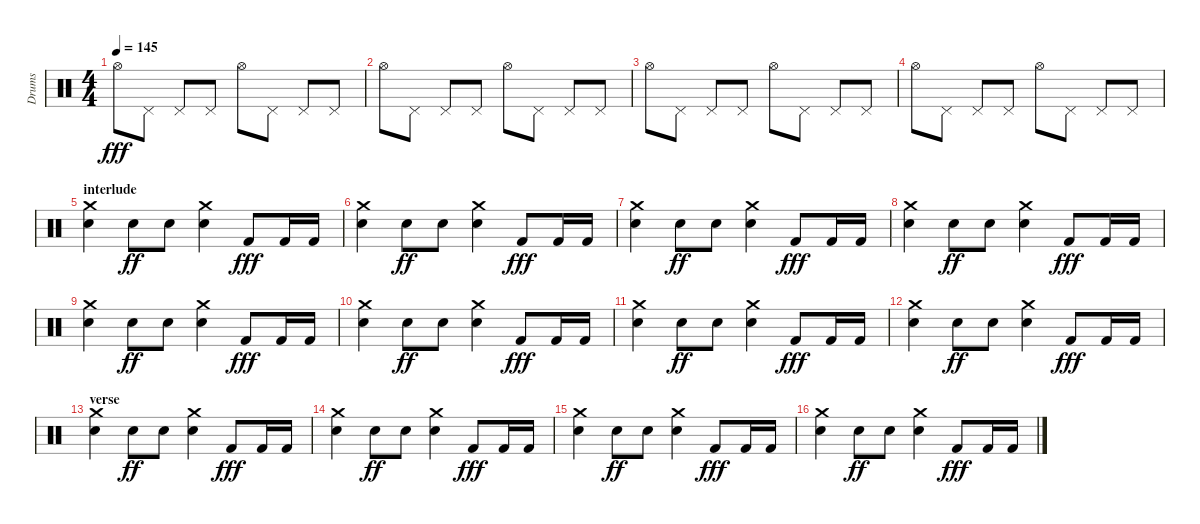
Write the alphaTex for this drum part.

\track ("Drums" "Drums") {instrument percussion}
\staff {score}
\articulation defaults
\ts (4 4)
\tempo 145
\clef neutral
\ks c "Hi-Hat (open)".8{dy fff} "Pedal Hi-Hat (hit)".8 "Pedal Hi-Hat (hit)".8 "Pedal Hi-Hat (hit)".8 "Hi-Hat (open)".8 "Pedal Hi-Hat (hit)".8 "Pedal Hi-Hat (hit)".8 "Pedal Hi-Hat (hit)".8
|
"Hi-Hat (open)".8 "Pedal Hi-Hat (hit)".8 "Pedal Hi-Hat (hit)".8 "Pedal Hi-Hat (hit)".8 "Hi-Hat (open)".8 "Pedal Hi-Hat (hit)".8 "Pedal Hi-Hat (hit)".8 "Pedal Hi-Hat (hit)".8 |
"Hi-Hat (open)".8 "Pedal Hi-Hat (hit)".8 "Pedal Hi-Hat (hit)".8 "Pedal Hi-Hat (hit)".8 "Hi-Hat (open)".8 "Pedal Hi-Hat (hit)".8 "Pedal Hi-Hat (hit)".8 "Pedal Hi-Hat (hit)".8 |
"Hi-Hat (open)".8 "Pedal Hi-Hat (hit)".8 "Pedal Hi-Hat (hit)".8 "Pedal Hi-Hat (hit)".8 "Hi-Hat (open)".8 "Pedal Hi-Hat (hit)".8 "Pedal Hi-Hat (hit)".8 "Pedal Hi-Hat (hit)".8 |
\section ("" "interlude")
("Snare (hit) 2" "Crash medium (hit)").4 "Snare (hit) 2".8{dy ff} "Snare (hit) 2".8 ("Crash medium (hit)" "Snare (hit) 2").4 "Kick (hit) 2".8{dy fff} "Kick (hit) 2".16 "Kick (hit) 2".16 |
("Snare (hit) 2" "Crash medium (hit)").4 "Snare (hit) 2".8{dy ff} "Snare (hit) 2".8 ("Crash medium (hit)" "Snare (hit) 2").4 "Kick (hit) 2".8{dy fff} "Kick (hit) 2".16 "Kick (hit) 2".16 |
("Snare (hit) 2" "Crash medium (hit)").4 "Snare (hit) 2".8{dy ff} "Snare (hit) 2".8 ("Crash medium (hit)" "Snare (hit) 2").4 "Kick (hit) 2".8{dy fff} "Kick (hit) 2".16 "Kick (hit) 2".16 |
("Snare (hit) 2" "Crash medium (hit)").4 "Snare (hit) 2".8{dy ff} "Snare (hit) 2".8 ("Crash medium (hit)" "Snare (hit) 2").4 "Kick (hit) 2".8{dy fff} "Kick (hit) 2".16 "Kick (hit) 2".16 |
("Snare (hit) 2" "Crash medium (hit)").4 "Snare (hit) 2".8{dy ff} "Snare (hit) 2".8 ("Crash medium (hit)" "Snare (hit) 2").4 "Kick (hit) 2".8{dy fff} "Kick (hit) 2".16 "Kick (hit) 2".16 |
("Snare (hit) 2" "Crash medium (hit)").4 "Snare (hit) 2".8{dy ff} "Snare (hit) 2".8 ("Crash medium (hit)" "Snare (hit) 2").4 "Kick (hit) 2".8{dy fff} "Kick (hit) 2".16 "Kick (hit) 2".16 |
("Snare (hit) 2" "Crash medium (hit)").4 "Snare (hit) 2".8{dy ff} "Snare (hit) 2".8 ("Crash medium (hit)" "Snare (hit) 2").4 "Kick (hit) 2".8{dy fff} "Kick (hit) 2".16 "Kick (hit) 2".16 |
("Snare (hit) 2" "Crash medium (hit)").4 "Snare (hit) 2".8{dy ff} "Snare (hit) 2".8 ("Crash medium (hit)" "Snare (hit) 2").4 "Kick (hit) 2".8{dy fff} "Kick (hit) 2".16 "Kick (hit) 2".16 |
\section ("" "verse")
("Snare (hit) 2" "Crash medium (hit)").4 "Snare (hit) 2".8{dy ff} "Snare (hit) 2".8 ("Crash medium (hit)" "Snare (hit) 2").4 "Kick (hit) 2".8{dy fff} "Kick (hit) 2".16 "Kick (hit) 2".16 |
("Snare (hit) 2" "Crash medium (hit)").4 "Snare (hit) 2".8{dy ff} "Snare (hit) 2".8 ("Crash medium (hit)" "Snare (hit) 2").4 "Kick (hit) 2".8{dy fff} "Kick (hit) 2".16 "Kick (hit) 2".16 |
("Snare (hit) 2" "Crash medium (hit)").4 "Snare (hit) 2".8{dy ff} "Snare (hit) 2".8 ("Crash medium (hit)" "Snare (hit) 2").4 "Kick (hit) 2".8{dy fff} "Kick (hit) 2".16 "Kick (hit) 2".16 |
("Snare (hit) 2" "Crash medium (hit)").4 "Snare (hit) 2".8{dy ff} "Snare (hit) 2".8 ("Crash medium (hit)" "Snare (hit) 2").4 "Kick (hit) 2".8{dy fff} "Kick (hit) 2".16 "Kick (hit) 2".16
